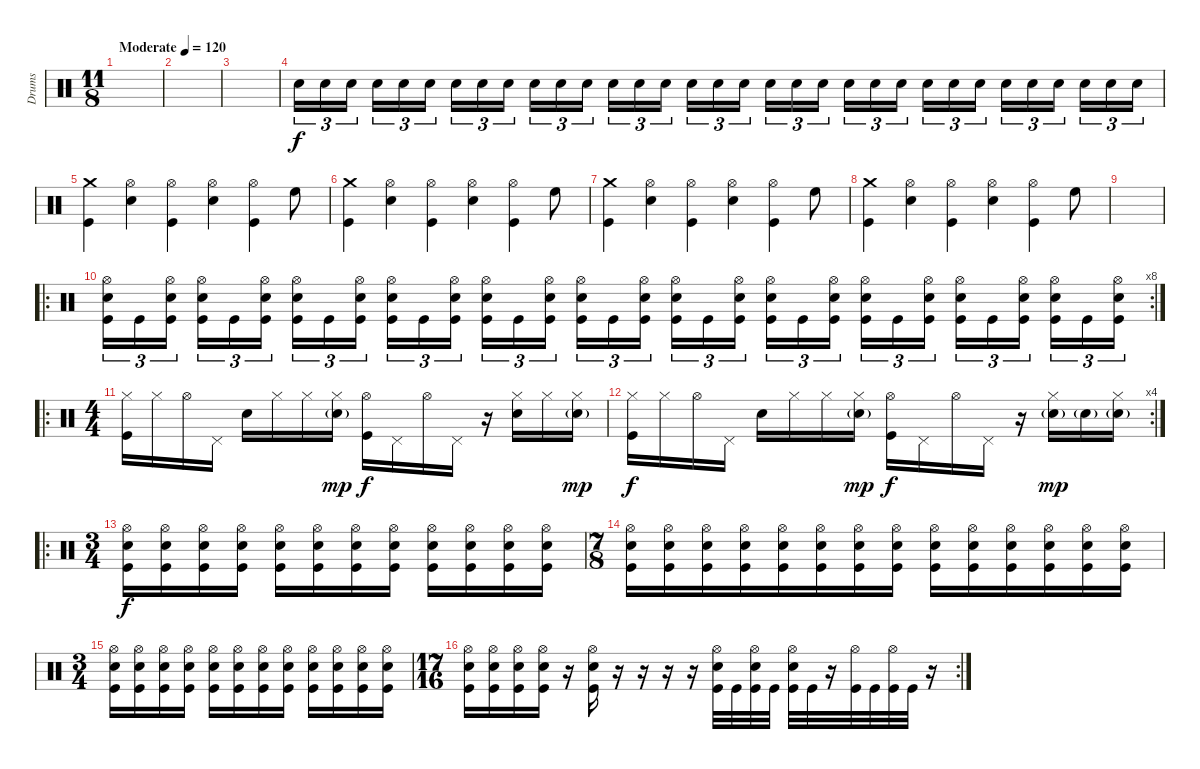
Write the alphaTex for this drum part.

\track ("Drums" "Drums") {instrument percussion}
\staff {score}
\articulation defaults
\ts (11 8)
\tempo (120 "Moderate")
\clef neutral
\ks c
|
|
|
"Snare (hit) 2".16{tu (3 2) volume 13} "Snare (hit) 2".16{tu (3 2)} "Snare (hit) 2".16{tu (3 2)} "Snare (hit) 2".16{tu (3 2)} "Snare (hit) 2".16{tu (3 2)} "Snare (hit) 2".16{tu (3 2)} "Snare (hit) 2".16{tu (3 2)} "Snare (hit) 2".16{tu (3 2)} "Snare (hit) 2".16{tu (3 2)} "Snare (hit) 2".16{tu (3 2)} "Snare (hit) 2".16{tu (3 2)} "Snare (hit) 2".16{tu (3 2)} "Snare (hit) 2".16{tu (3 2)} "Snare (hit) 2".16{tu (3 2)} "Snare (hit) 2".16{tu (3 2)} "Snare (hit) 2".16{tu (3 2)} "Snare (hit) 2".16{tu (3 2)} "Snare (hit) 2".16{tu (3 2)} "Snare (hit) 2".16{tu (3 2)} "Snare (hit) 2".16{tu (3 2)} "Snare (hit) 2".16{tu (3 2)} "Snare (hit) 2".16{tu (3 2)} "Snare (hit) 2".16{tu (3 2)} "Snare (hit) 2".16{tu (3 2)} "Snare (hit) 2".16{tu (3 2)} "Snare (hit) 2".16{tu (3 2)} "Snare (hit) 2".16{tu (3 2)} "Snare (hit) 2".16{tu (3 2)} "Snare (hit) 2".16{tu (3 2)} "Snare (hit) 2".16{tu (3 2)} "Snare (hit) 2".16{tu (3 2)} "Snare (hit) 2".16{tu (3 2)} "Snare (hit) 2".16{tu (3 2)} |
("Crash medium (hit)" "Kick (hit)").4 ("Hi-Hat (open)" "Snare (hit) 2").4 ("Hi-Hat (open)" "Kick (hit)").4 ("Hi-Hat (open)" "Snare (hit) 2").4 ("Hi-Hat (open)" "Kick (hit)").4 "High Floor Tom (hit)".8 |
("Crash medium (hit)" "Kick (hit)").4 ("Hi-Hat (open)" "Snare (hit) 2").4 ("Hi-Hat (open)" "Kick (hit)").4 ("Hi-Hat (open)" "Snare (hit) 2").4 ("Hi-Hat (open)" "Kick (hit)").4 "High Floor Tom (hit)".8 |
("Crash medium (hit)" "Kick (hit)").4 ("Hi-Hat (open)" "Snare (hit) 2").4 ("Hi-Hat (open)" "Kick (hit)").4 ("Hi-Hat (open)" "Snare (hit) 2").4 ("Hi-Hat (open)" "Kick (hit)").4 "High Floor Tom (hit)".8 |
("Crash medium (hit)" "Kick (hit)").4 ("Hi-Hat (open)" "Snare (hit) 2").4 ("Hi-Hat (open)" "Kick (hit)").4 ("Hi-Hat (open)" "Snare (hit) 2").4 ("Hi-Hat (open)" "Kick (hit)").4 "High Floor Tom (hit)".8 |
|
\ro
\rc 8
("Hi-Hat (open)" "Snare (hit) 2" "Kick (hit)").16{tu (3 2)} "Kick (hit)".16{tu (3 2)} ("Hi-Hat (open)" "Snare (hit) 2" "Kick (hit)").16{tu (3 2)} ("Hi-Hat (open)" "Snare (hit) 2" "Kick (hit)").16{tu (3 2)} "Kick (hit)".16{tu (3 2)} ("Hi-Hat (open)" "Snare (hit) 2" "Kick (hit)").16{tu (3 2)} ("Hi-Hat (open)" "Snare (hit) 2" "Kick (hit)").16{tu (3 2)} "Kick (hit)".16{tu (3 2)} ("Hi-Hat (open)" "Snare (hit) 2" "Kick (hit)").16{tu (3 2)} ("Hi-Hat (open)" "Snare (hit) 2" "Kick (hit)").16{tu (3 2)} "Kick (hit)".16{tu (3 2)} ("Hi-Hat (open)" "Snare (hit) 2" "Kick (hit)").16{tu (3 2)} ("Hi-Hat (open)" "Snare (hit) 2" "Kick (hit)").16{tu (3 2)} "Kick (hit)".16{tu (3 2)} ("Hi-Hat (open)" "Snare (hit) 2" "Kick (hit)").16{tu (3 2)} ("Hi-Hat (open)" "Snare (hit) 2" "Kick (hit)").16{tu (3 2)} "Kick (hit)".16{tu (3 2)} ("Hi-Hat (open)" "Snare (hit) 2" "Kick (hit)").16{tu (3 2)} ("Hi-Hat (open)" "Snare (hit) 2" "Kick (hit)").16{tu (3 2)} "Kick (hit)".16{tu (3 2)} ("Hi-Hat (open)" "Snare (hit) 2" "Kick (hit)").16{tu (3 2)} ("Hi-Hat (open)" "Snare (hit) 2" "Kick (hit)").16{tu (3 2)} "Kick (hit)".16{tu (3 2)} ("Hi-Hat (open)" "Snare (hit) 2" "Kick (hit)").16{tu (3 2)} ("Hi-Hat (open)" "Snare (hit) 2" "Kick (hit)").16{tu (3 2)} "Kick (hit)".16{tu (3 2)} ("Hi-Hat (open)" "Snare (hit) 2" "Kick (hit)").16{tu (3 2)} ("Hi-Hat (open)" "Snare (hit) 2" "Kick (hit)").16{tu (3 2)} "Kick (hit)".16{tu (3 2)} ("Hi-Hat (open)" "Snare (hit) 2" "Kick (hit)").16{tu (3 2)} ("Hi-Hat (open)" "Snare (hit) 2" "Kick (hit)").16{tu (3 2)} "Kick (hit)".16{tu (3 2)} ("Hi-Hat (open)" "Snare (hit) 2" "Kick (hit)").16{tu (3 2)} |
\ro
\ts (4 4)
("Hi-Hat (closed)" "Kick (hit)").16 "Hi-Hat (closed)".16 "Hi-Hat (open)".16 "Pedal Hi-Hat (hit)".16 "Snare (hit) 2".16 "Hi-Hat (closed)".16 "Hi-Hat (closed)".16 ("Hi-Hat (closed)" "Snare (hit) 2"{g}).16{dy mp} ("Hi-Hat (open)" "Kick (hit)").16{dy f} "Pedal Hi-Hat (hit)".16 "Hi-Hat (open)".16 "Pedal Hi-Hat (hit)".16 r.16 ("Hi-Hat (closed)" "Snare (hit) 2").16 "Hi-Hat (closed)".16 ("Hi-Hat (closed)" "Snare (hit) 2"{g}).16{dy mp} |
\rc 4
("Hi-Hat (closed)" "Kick (hit)").16{dy f} "Hi-Hat (closed)".16 "Hi-Hat (open)".16 "Pedal Hi-Hat (hit)".16 "Snare (hit) 2".16 "Hi-Hat (closed)".16 "Hi-Hat (closed)".16 ("Hi-Hat (closed)" "Snare (hit) 2"{g}).16{dy mp} ("Hi-Hat (open)" "Kick (hit)").16{dy f} "Pedal Hi-Hat (hit)".16 "Hi-Hat (open)".16 "Pedal Hi-Hat (hit)".16 r.16 ("Hi-Hat (closed)" "Snare (hit) 2"{g}).16{dy mp} "Snare (hit) 2"{g}.16 ("Hi-Hat (closed)" "Snare (hit) 2"{g}).16 |
\ro
\ts (3 4)
("Hi-Hat (open)" "Snare (hit) 2" "Kick (hit)").16{dy f} ("Hi-Hat (open)" "Snare (hit) 2" "Kick (hit)").16 ("Hi-Hat (open)" "Snare (hit) 2" "Kick (hit)").16 ("Hi-Hat (open)" "Snare (hit) 2" "Kick (hit)").16 ("Hi-Hat (open)" "Snare (hit) 2" "Kick (hit)").16 ("Hi-Hat (open)" "Snare (hit) 2" "Kick (hit)").16 ("Hi-Hat (open)" "Snare (hit) 2" "Kick (hit)").16 ("Hi-Hat (open)" "Snare (hit) 2" "Kick (hit)").16 ("Hi-Hat (open)" "Snare (hit) 2" "Kick (hit)").16 ("Hi-Hat (open)" "Snare (hit) 2" "Kick (hit)").16 ("Hi-Hat (open)" "Snare (hit) 2" "Kick (hit)").16 ("Hi-Hat (open)" "Snare (hit) 2" "Kick (hit)").16 |
\ts (7 8)
("Hi-Hat (open)" "Snare (hit) 2" "Kick (hit)").16 ("Hi-Hat (open)" "Snare (hit) 2" "Kick (hit)").16 ("Hi-Hat (open)" "Snare (hit) 2" "Kick (hit)").16 ("Hi-Hat (open)" "Snare (hit) 2" "Kick (hit)").16 ("Hi-Hat (open)" "Snare (hit) 2" "Kick (hit)").16 ("Hi-Hat (open)" "Snare (hit) 2" "Kick (hit)").16 ("Hi-Hat (open)" "Snare (hit) 2" "Kick (hit)").16 ("Hi-Hat (open)" "Snare (hit) 2" "Kick (hit)").16 ("Hi-Hat (open)" "Snare (hit) 2" "Kick (hit)").16 ("Hi-Hat (open)" "Snare (hit) 2" "Kick (hit)").16 ("Hi-Hat (open)" "Snare (hit) 2" "Kick (hit)").16 ("Hi-Hat (open)" "Snare (hit) 2" "Kick (hit)").16 ("Hi-Hat (open)" "Snare (hit) 2" "Kick (hit)").16 ("Hi-Hat (open)" "Snare (hit) 2" "Kick (hit)").16 |
\ts (3 4)
("Hi-Hat (open)" "Snare (hit) 2" "Kick (hit)").16 ("Hi-Hat (open)" "Snare (hit) 2" "Kick (hit)").16 ("Hi-Hat (open)" "Snare (hit) 2" "Kick (hit)").16 ("Hi-Hat (open)" "Snare (hit) 2" "Kick (hit)").16 ("Hi-Hat (open)" "Snare (hit) 2" "Kick (hit)").16 ("Hi-Hat (open)" "Snare (hit) 2" "Kick (hit)").16 ("Hi-Hat (open)" "Snare (hit) 2" "Kick (hit)").16 ("Hi-Hat (open)" "Snare (hit) 2" "Kick (hit)").16 ("Hi-Hat (open)" "Snare (hit) 2" "Kick (hit)").16 ("Hi-Hat (open)" "Snare (hit) 2" "Kick (hit)").16 ("Hi-Hat (open)" "Snare (hit) 2" "Kick (hit)").16 ("Hi-Hat (open)" "Snare (hit) 2" "Kick (hit)").16 |
\rc 2
\ts (17 16)
("Hi-Hat (open)" "Snare (hit) 2" "Kick (hit)").16 ("Hi-Hat (open)" "Snare (hit) 2" "Kick (hit)").16 ("Hi-Hat (open)" "Snare (hit) 2" "Kick (hit)").16 ("Hi-Hat (open)" "Snare (hit) 2" "Kick (hit)").16 r.16 ("Hi-Hat (open)" "Snare (hit) 2" "Kick (hit)").16 r.16 r.16 r.16 r.16 ("Hi-Hat (open)" "Snare (hit) 2" "Kick (hit)").32 "Kick (hit)".32 ("Hi-Hat (open)" "Snare (hit) 2" "Kick (hit)").32 "Kick (hit)".32 ("Hi-Hat (open)" "Snare (hit) 2" "Kick (hit)").32 "Kick (hit)".32 r.16 ("Hi-Hat (open)" "Kick (hit)").32 "Kick (hit)".32 ("Hi-Hat (open)" "Kick (hit)").32 "Kick (hit)".32 r.16
